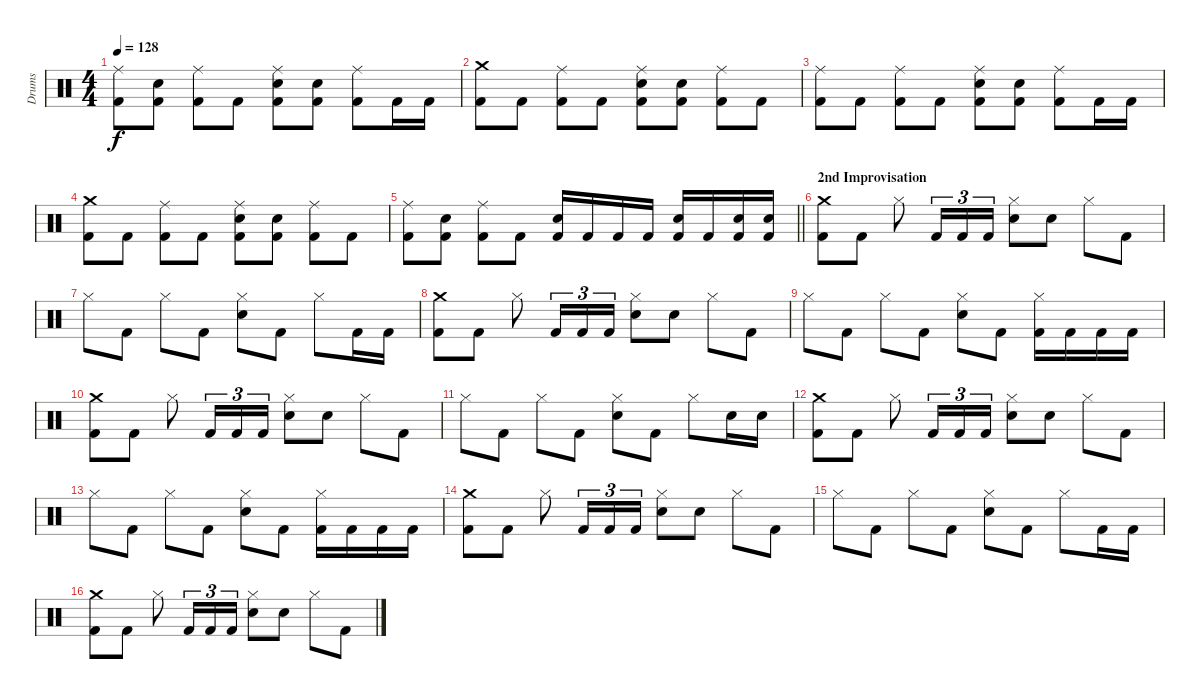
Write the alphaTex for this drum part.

\track ("Drums" "Drums") {instrument percussion}
\staff {score}
\articulation defaults
\ts (4 4)
\tempo 128
\clef neutral
\ks c
("Ride (middle)" "Kick (hit) 2").8{dy f} ("Snare (hit) 2" "Kick (hit) 2").8 ("Ride (middle)" "Kick (hit) 2").8 "Kick (hit) 2".8 ("Ride (middle)" "Snare (hit) 2" "Kick (hit) 2").8 ("Snare (hit) 2" "Kick (hit) 2").8 ("Ride (middle)" "Kick (hit) 2").8 "Kick (hit) 2".16 "Kick (hit) 2".16 |
("Crash medium (hit)" "Kick (hit) 2").8 "Kick (hit) 2".8 ("Ride (middle)" "Kick (hit) 2").8 "Kick (hit) 2".8 ("Ride (middle)" "Snare (hit) 2" "Kick (hit) 2").8 ("Snare (hit) 2" "Kick (hit) 2").8 ("Ride (middle)" "Kick (hit) 2").8 "Kick (hit) 2".8 |
("Ride (middle)" "Kick (hit) 2").8 "Kick (hit) 2".8 ("Ride (middle)" "Kick (hit) 2").8 "Kick (hit) 2".8 ("Ride (middle)" "Snare (hit) 2" "Kick (hit) 2").8 ("Snare (hit) 2" "Kick (hit) 2").8 ("Ride (middle)" "Kick (hit) 2").8 "Kick (hit) 2".16 "Kick (hit) 2".16 |
("Crash medium (hit)" "Kick (hit) 2").8 "Kick (hit) 2".8 ("Ride (middle)" "Kick (hit) 2").8 "Kick (hit) 2".8 ("Ride (middle)" "Snare (hit) 2" "Kick (hit) 2").8 ("Snare (hit) 2" "Kick (hit) 2").8 ("Ride (middle)" "Kick (hit) 2").8 "Kick (hit) 2".8 |
\barLineRight lightlight
("Ride (middle)" "Kick (hit) 2").8 ("Snare (hit) 2" "Kick (hit) 2").8 ("Ride (middle)" "Kick (hit) 2").8 "Kick (hit) 2".8 ("Snare (hit) 2" "Kick (hit) 2").16 "Kick (hit) 2".16 "Kick (hit) 2".16 "Kick (hit) 2".16 ("Snare (hit) 2" "Kick (hit) 2").16 "Kick (hit) 2".16 ("Snare (hit) 2" "Kick (hit) 2").16 ("Snare (hit) 2" "Kick (hit) 2").16 |
\section ("" "2nd Improvisation")
("Crash medium (hit)" "Kick (hit) 2").8 "Kick (hit) 2".8 "Hi-Hat (closed)".8 "Kick (hit) 2".16{tu (3 2)} "Kick (hit) 2".16{tu (3 2)} "Kick (hit) 2".16{tu (3 2)} ("Hi-Hat (closed)" "Snare (hit) 2").8 "Snare (hit) 2".8 "Hi-Hat (closed)".8 "Kick (hit) 2".8 |
"Hi-Hat (closed)".8 "Kick (hit) 2".8 "Hi-Hat (closed)".8 "Kick (hit) 2".8 ("Hi-Hat (closed)" "Snare (hit) 2").8 "Kick (hit) 2".8 "Hi-Hat (closed)".8 "Kick (hit) 2".16 "Kick (hit) 2".16 |
("Crash medium (hit)" "Kick (hit) 2").8 "Kick (hit) 2".8 "Hi-Hat (closed)".8 "Kick (hit) 2".16{tu (3 2)} "Kick (hit) 2".16{tu (3 2)} "Kick (hit) 2".16{tu (3 2)} ("Hi-Hat (closed)" "Snare (hit) 2").8 "Snare (hit) 2".8 "Hi-Hat (closed)".8 "Kick (hit) 2".8 |
"Hi-Hat (closed)".8 "Kick (hit) 2".8 "Hi-Hat (closed)".8 "Kick (hit) 2".8 ("Hi-Hat (closed)" "Snare (hit) 2").8 "Kick (hit) 2".8 ("Hi-Hat (closed)" "Kick (hit) 2").16 "Kick (hit) 2".16 "Kick (hit) 2".16 "Kick (hit) 2".16 |
("Crash medium (hit)" "Kick (hit) 2").8 "Kick (hit) 2".8 "Hi-Hat (closed)".8 "Kick (hit) 2".16{tu (3 2)} "Kick (hit) 2".16{tu (3 2)} "Kick (hit) 2".16{tu (3 2)} ("Hi-Hat (closed)" "Snare (hit) 2").8 "Snare (hit) 2".8 "Hi-Hat (closed)".8 "Kick (hit) 2".8 |
"Hi-Hat (closed)".8 "Kick (hit) 2".8 "Hi-Hat (closed)".8 "Kick (hit) 2".8 ("Hi-Hat (closed)" "Snare (hit) 2").8 "Kick (hit) 2".8 "Hi-Hat (closed)".8 "Snare (hit) 2".16 "Snare (hit) 2".16 |
("Crash medium (hit)" "Kick (hit) 2").8 "Kick (hit) 2".8 "Hi-Hat (closed)".8 "Kick (hit) 2".16{tu (3 2)} "Kick (hit) 2".16{tu (3 2)} "Kick (hit) 2".16{tu (3 2)} ("Hi-Hat (closed)" "Snare (hit) 2").8 "Snare (hit) 2".8 "Hi-Hat (closed)".8 "Kick (hit) 2".8 |
"Hi-Hat (closed)".8 "Kick (hit) 2".8 "Hi-Hat (closed)".8 "Kick (hit) 2".8 ("Hi-Hat (closed)" "Snare (hit) 2").8 "Kick (hit) 2".8 ("Hi-Hat (closed)" "Kick (hit) 2").16 "Kick (hit) 2".16 "Kick (hit) 2".16 "Kick (hit) 2".16 |
("Crash medium (hit)" "Kick (hit) 2").8 "Kick (hit) 2".8 "Hi-Hat (closed)".8 "Kick (hit) 2".16{tu (3 2)} "Kick (hit) 2".16{tu (3 2)} "Kick (hit) 2".16{tu (3 2)} ("Hi-Hat (closed)" "Snare (hit) 2").8 "Snare (hit) 2".8 "Hi-Hat (closed)".8 "Kick (hit) 2".8 |
"Hi-Hat (closed)".8 "Kick (hit) 2".8 "Hi-Hat (closed)".8 "Kick (hit) 2".8 ("Hi-Hat (closed)" "Snare (hit) 2").8 "Kick (hit) 2".8 "Hi-Hat (closed)".8 "Kick (hit) 2".16 "Kick (hit) 2".16 |
("Crash medium (hit)" "Kick (hit) 2").8 "Kick (hit) 2".8 "Hi-Hat (closed)".8 "Kick (hit) 2".16{tu (3 2)} "Kick (hit) 2".16{tu (3 2)} "Kick (hit) 2".16{tu (3 2)} ("Hi-Hat (closed)" "Snare (hit) 2").8 "Snare (hit) 2".8 "Hi-Hat (closed)".8 "Kick (hit) 2".8
